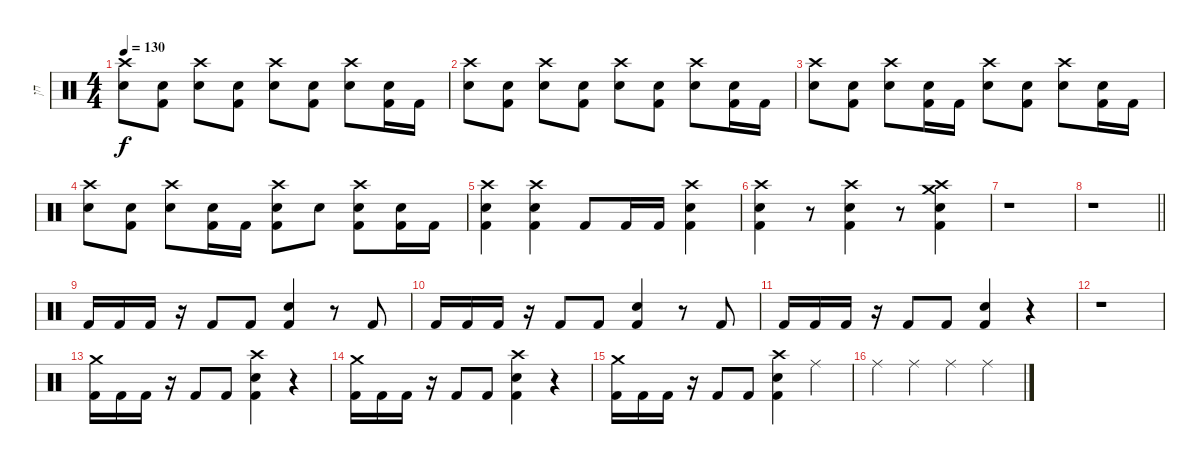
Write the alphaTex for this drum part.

\track ("חן" "חן") {instrument percussion}
\staff {score}
\articulation defaults
\ts (4 4)
\tempo 130
\clef neutral
\ks c
("Crash high (hit)" "Electric Snare (hit)").8{dy f} ("Electric Snare (hit)" "Kick (hit) 2").8 ("Crash high (hit)" "Electric Snare (hit)").8 ("Electric Snare (hit)" "Kick (hit) 2").8 ("Crash high (hit)" "Electric Snare (hit)").8 ("Electric Snare (hit)" "Kick (hit) 2").8 ("Crash high (hit)" "Electric Snare (hit)").8 ("Electric Snare (hit)" "Kick (hit) 2").16 "Kick (hit) 2".16 |
("Crash high (hit)" "Electric Snare (hit)").8 ("Electric Snare (hit)" "Kick (hit) 2").8 ("Crash high (hit)" "Electric Snare (hit)").8 ("Electric Snare (hit)" "Kick (hit) 2").8 ("Crash high (hit)" "Electric Snare (hit)").8 ("Electric Snare (hit)" "Kick (hit) 2").8 ("Crash high (hit)" "Electric Snare (hit)").8 ("Electric Snare (hit)" "Kick (hit) 2").16 "Kick (hit) 2".16 |
("Crash high (hit)" "Electric Snare (hit)").8 ("Electric Snare (hit)" "Kick (hit) 2").8 ("Crash high (hit)" "Electric Snare (hit)").8 ("Electric Snare (hit)" "Kick (hit) 2").16 "Kick (hit) 2".16 ("Crash high (hit)" "Electric Snare (hit)").8 ("Electric Snare (hit)" "Kick (hit) 2").8 ("Crash high (hit)" "Electric Snare (hit)").8 ("Electric Snare (hit)" "Kick (hit) 2").16 "Kick (hit) 2".16 |
("Crash high (hit)" "Electric Snare (hit)").8 ("Electric Snare (hit)" "Kick (hit) 2").8 ("Crash high (hit)" "Electric Snare (hit)").8 ("Electric Snare (hit)" "Kick (hit) 2").16 "Kick (hit) 2".16 ("Crash high (hit)" "Electric Snare (hit)" "Kick (hit) 2").8 "Electric Snare (hit)".8 ("Crash high (hit)" "Electric Snare (hit)" "Kick (hit) 2").8 ("Electric Snare (hit)" "Kick (hit) 2").16 "Kick (hit) 2".16 |
("Crash high (hit)" "Electric Snare (hit)" "Kick (hit) 2").4 ("Crash high (hit)" "Electric Snare (hit)" "Kick (hit) 2").4 "Kick (hit) 2".8 "Kick (hit) 2".16 "Kick (hit) 2".16 ("Crash high (hit)" "Electric Snare (hit)" "Kick (hit) 2").4 |
("Crash high (hit)" "Electric Snare (hit)" "Kick (hit) 2").4 r.8 ("Crash high (hit)" "Electric Snare (hit)" "Kick (hit) 2").4 r.8 ("Crash high (hit)" "Electric Snare (hit)" "Crash medium (hit)" "Kick (hit) 2").4 |
r.1 |
\barLineRight lightlight
r.1 |
"Kick (hit) 2".16 "Kick (hit) 2".16 "Kick (hit) 2".16 r.16 "Kick (hit) 2".8 "Kick (hit) 2".8 ("Electric Snare (hit)" "Kick (hit) 2").4 r.8 "Kick (hit) 2".8 |
"Kick (hit) 2".16 "Kick (hit) 2".16 "Kick (hit) 2".16 r.16 "Kick (hit) 2".8 "Kick (hit) 2".8 ("Electric Snare (hit)" "Kick (hit) 2").4 r.8 "Kick (hit) 2".8 |
"Kick (hit) 2".16 "Kick (hit) 2".16 "Kick (hit) 2".16 r.16 "Kick (hit) 2".8 "Kick (hit) 2".8 ("Electric Snare (hit)" "Kick (hit) 2").4 r.4 |
r.1 |
("Crash medium (hit)" "Kick (hit) 2").16 "Kick (hit) 2".16 "Kick (hit) 2".16 r.16 "Kick (hit) 2".8 "Kick (hit) 2".8 ("Crash high (hit)" "Electric Snare (hit)" "Kick (hit) 2").4 r.4 |
("Crash medium (hit)" "Kick (hit) 2").16 "Kick (hit) 2".16 "Kick (hit) 2".16 r.16 "Kick (hit) 2".8 "Kick (hit) 2".8 ("Crash high (hit)" "Electric Snare (hit)" "Kick (hit) 2").4 r.4 |
("Crash medium (hit)" "Kick (hit) 2").16 "Kick (hit) 2".16 "Kick (hit) 2".16 r.16 "Kick (hit) 2".8 "Kick (hit) 2".8 ("Crash high (hit)" "Electric Snare (hit)" "Kick (hit) 2").4 "Ride (middle)".4 |
"Ride (middle)".4 "Ride (middle)".4 "Ride (middle)".4 "Ride (middle)".4
